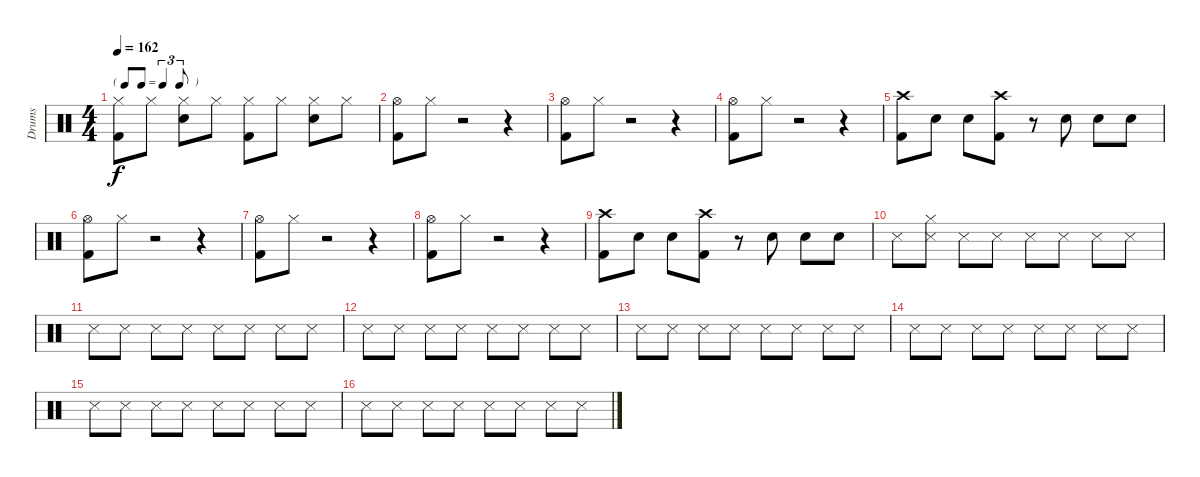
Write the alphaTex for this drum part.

\track ("Drums" "Drums") {instrument percussion}
\staff {score}
\articulation defaults
\ts (4 4)
\tf triplet8th
\tempo 162
\clef neutral
\ks c
("Hi-Hat (closed)" "Kick (hit) 2").8{dy f} "Hi-Hat (closed)".8 ("Hi-Hat (closed)" "Snare (hit) 2").8 "Hi-Hat (closed)".8 ("Hi-Hat (closed)" "Kick (hit) 2").8 "Hi-Hat (closed)".8 ("Hi-Hat (closed)" "Snare (hit) 2").8 "Hi-Hat (closed)".8 |
("Hi-Hat (open)" "Kick (hit) 2").8 "Hi-Hat (closed)".8 r.2 r.4 |
("Hi-Hat (open)" "Kick (hit) 2").8 "Hi-Hat (closed)".8 r.2 r.4 |
("Hi-Hat (open)" "Kick (hit) 2").8 "Hi-Hat (closed)".8 r.2 r.4 |
("Crash high (hit)" "Kick (hit) 2").8 "Snare (hit) 2".8 "Snare (hit) 2".8 ("Crash high (hit)" "Kick (hit) 2").8 r.8 "Snare (hit) 2".8 "Snare (hit) 2".8 "Snare (hit) 2".8 |
("Hi-Hat (open)" "Kick (hit) 2").8 "Hi-Hat (closed)".8 r.2 r.4 |
("Hi-Hat (open)" "Kick (hit) 2").8 "Hi-Hat (closed)".8 r.2 r.4 |
("Hi-Hat (open)" "Kick (hit) 2").8 "Hi-Hat (closed)".8 r.2 r.4 |
("Crash high (hit)" "Kick (hit) 2").8 "Snare (hit) 2".8 "Snare (hit) 2".8 ("Crash high (hit)" "Kick (hit) 2").8 r.8 "Snare (hit) 2".8 "Snare (hit) 2".8 "Snare (hit) 2".8 |
"Snare (side stick) 3".8 ("Hi-Hat (closed)" "Snare (side stick) 3").8 "Snare (side stick) 3".8 "Snare (side stick) 3".8 "Snare (side stick) 3".8 "Snare (side stick) 3".8 "Snare (side stick) 3".8 "Snare (side stick) 3".8 |
"Snare (side stick) 3".8 "Snare (side stick) 3".8 "Snare (side stick) 3".8 "Snare (side stick) 3".8 "Snare (side stick) 3".8 "Snare (side stick) 3".8 "Snare (side stick) 3".8 "Snare (side stick) 3".8 |
"Snare (side stick) 3".8 "Snare (side stick) 3".8 "Snare (side stick) 3".8 "Snare (side stick) 3".8 "Snare (side stick) 3".8 "Snare (side stick) 3".8 "Snare (side stick) 3".8 "Snare (side stick) 3".8 |
"Snare (side stick) 3".8 "Snare (side stick) 3".8 "Snare (side stick) 3".8 "Snare (side stick) 3".8 "Snare (side stick) 3".8 "Snare (side stick) 3".8 "Snare (side stick) 3".8 "Snare (side stick) 3".8 |
"Snare (side stick) 3".8 "Snare (side stick) 3".8 "Snare (side stick) 3".8 "Snare (side stick) 3".8 "Snare (side stick) 3".8 "Snare (side stick) 3".8 "Snare (side stick) 3".8 "Snare (side stick) 3".8 |
"Snare (side stick) 3".8 "Snare (side stick) 3".8 "Snare (side stick) 3".8 "Snare (side stick) 3".8 "Snare (side stick) 3".8 "Snare (side stick) 3".8 "Snare (side stick) 3".8 "Snare (side stick) 3".8 |
"Snare (side stick) 3".8 "Snare (side stick) 3".8 "Snare (side stick) 3".8 "Snare (side stick) 3".8 "Snare (side stick) 3".8 "Snare (side stick) 3".8 "Snare (side stick) 3".8 "Snare (side stick) 3".8
